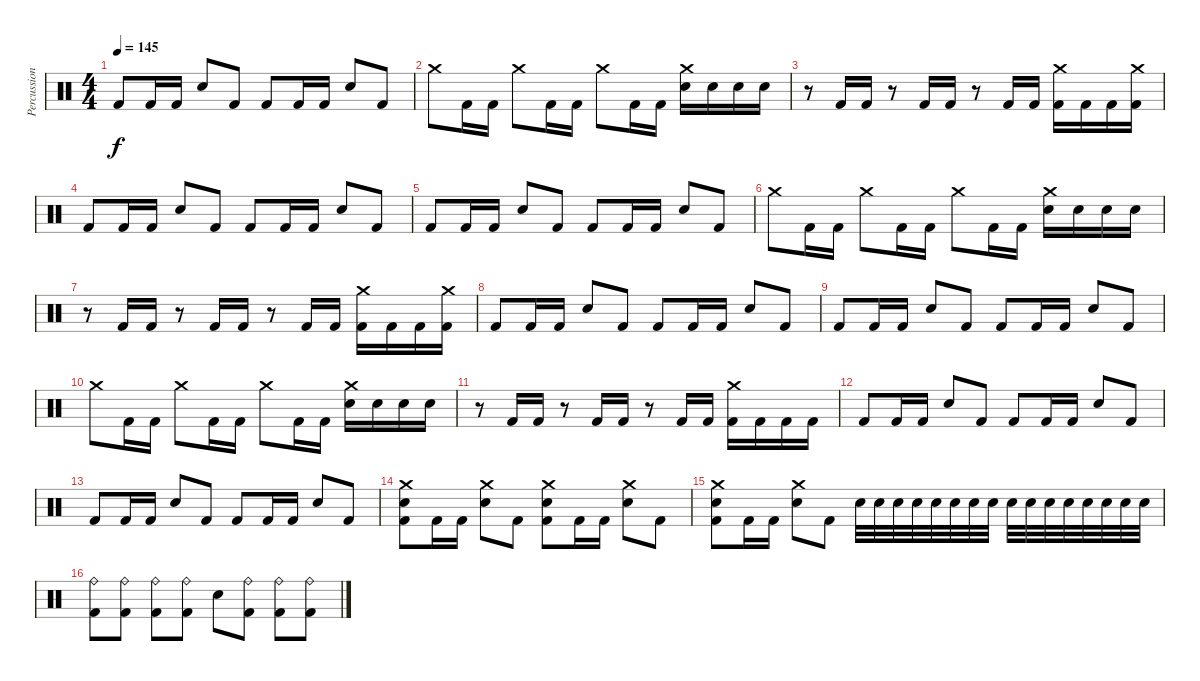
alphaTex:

\track ("Percussion" "Percussion") {instrument percussion}
\staff {score}
\articulation defaults
\ts (4 4)
\tempo 145
\clef neutral
\ks c "Kick (hit) 2".8{dy f} "Kick (hit) 2".16 "Kick (hit) 2".16 "Snare (hit) 2".8 "Kick (hit) 2".8 "Kick (hit) 2".8 "Kick (hit) 2".16 "Kick (hit) 2".16 "Snare (hit) 2".8 "Kick (hit) 2".8
|
"Crash medium (hit)".8 "Kick (hit) 2".16 "Kick (hit) 2".16 "Crash medium (hit)".8 "Kick (hit) 2".16 "Kick (hit) 2".16 "Crash medium (hit)".8 "Kick (hit) 2".16 "Kick (hit) 2".16 ("Crash medium (hit)" "Snare (hit) 2").16 "Snare (hit) 2".16 "Snare (hit) 2".16 "Snare (hit) 2".16 |
r.8 "Kick (hit) 2".16 "Kick (hit) 2".16 r.8 "Kick (hit) 2".16 "Kick (hit) 2".16 r.8 "Kick (hit) 2".16 "Kick (hit) 2".16 ("Crash medium (hit)" "Kick (hit) 2").16 "Kick (hit) 2".16 "Kick (hit) 2".16 ("Crash medium (hit)" "Kick (hit) 2").16 |
"Kick (hit) 2".8 "Kick (hit) 2".16 "Kick (hit) 2".16 "Snare (hit) 2".8 "Kick (hit) 2".8 "Kick (hit) 2".8 "Kick (hit) 2".16 "Kick (hit) 2".16 "Snare (hit) 2".8 "Kick (hit) 2".8 |
"Kick (hit) 2".8 "Kick (hit) 2".16 "Kick (hit) 2".16 "Snare (hit) 2".8 "Kick (hit) 2".8 "Kick (hit) 2".8 "Kick (hit) 2".16 "Kick (hit) 2".16 "Snare (hit) 2".8 "Kick (hit) 2".8 |
"Crash medium (hit)".8 "Kick (hit) 2".16 "Kick (hit) 2".16 "Crash medium (hit)".8 "Kick (hit) 2".16 "Kick (hit) 2".16 "Crash medium (hit)".8 "Kick (hit) 2".16 "Kick (hit) 2".16 ("Crash medium (hit)" "Snare (hit) 2").16 "Snare (hit) 2".16 "Snare (hit) 2".16 "Snare (hit) 2".16 |
r.8 "Kick (hit) 2".16 "Kick (hit) 2".16 r.8 "Kick (hit) 2".16 "Kick (hit) 2".16 r.8 "Kick (hit) 2".16 "Kick (hit) 2".16 ("Crash medium (hit)" "Kick (hit) 2").16 "Kick (hit) 2".16 "Kick (hit) 2".16 ("Crash medium (hit)" "Kick (hit) 2").16 |
"Kick (hit) 2".8 "Kick (hit) 2".16 "Kick (hit) 2".16 "Snare (hit) 2".8 "Kick (hit) 2".8 "Kick (hit) 2".8 "Kick (hit) 2".16 "Kick (hit) 2".16 "Snare (hit) 2".8 "Kick (hit) 2".8 |
"Kick (hit) 2".8 "Kick (hit) 2".16 "Kick (hit) 2".16 "Snare (hit) 2".8 "Kick (hit) 2".8 "Kick (hit) 2".8 "Kick (hit) 2".16 "Kick (hit) 2".16 "Snare (hit) 2".8 "Kick (hit) 2".8 |
"Crash medium (hit)".8 "Kick (hit) 2".16 "Kick (hit) 2".16 "Crash medium (hit)".8 "Kick (hit) 2".16 "Kick (hit) 2".16 "Crash medium (hit)".8 "Kick (hit) 2".16 "Kick (hit) 2".16 ("Crash medium (hit)" "Snare (hit) 2").16 "Snare (hit) 2".16 "Snare (hit) 2".16 "Snare (hit) 2".16 |
r.8 "Kick (hit) 2".16 "Kick (hit) 2".16 r.8 "Kick (hit) 2".16 "Kick (hit) 2".16 r.8 "Kick (hit) 2".16 "Kick (hit) 2".16 ("Crash medium (hit)" "Kick (hit) 2").16 "Kick (hit) 2".16 "Kick (hit) 2".16 "Kick (hit) 2".16 |
"Kick (hit) 2".8 "Kick (hit) 2".16 "Kick (hit) 2".16 "Snare (hit) 2".8 "Kick (hit) 2".8 "Kick (hit) 2".8 "Kick (hit) 2".16 "Kick (hit) 2".16 "Snare (hit) 2".8 "Kick (hit) 2".8 |
"Kick (hit) 2".8 "Kick (hit) 2".16 "Kick (hit) 2".16 "Snare (hit) 2".8 "Kick (hit) 2".8 "Kick (hit) 2".8 "Kick (hit) 2".16 "Kick (hit) 2".16 "Snare (hit) 2".8 "Kick (hit) 2".8 |
("Crash medium (hit)" "Snare (hit) 2" "Kick (hit) 2").8 "Kick (hit) 2".16 "Kick (hit) 2".16 ("Crash medium (hit)" "Snare (hit) 2").8 "Kick (hit) 2".8 ("Crash medium (hit)" "Snare (hit) 2" "Kick (hit) 2").8 "Kick (hit) 2".16 "Kick (hit) 2".16 ("Crash medium (hit)" "Snare (hit) 2").8 "Kick (hit) 2".8 |
("Crash medium (hit)" "Snare (hit) 2" "Kick (hit) 2").8 "Kick (hit) 2".16 "Kick (hit) 2".16 ("Crash medium (hit)" "Snare (hit) 2").8 "Kick (hit) 2".8 "Snare (hit) 2".32 "Snare (hit) 2".32 "Snare (hit) 2".32 "Snare (hit) 2".32 "Snare (hit) 2".32 "Snare (hit) 2".32 "Snare (hit) 2".32 "Snare (hit) 2".32 "Snare (hit) 2".32 "Snare (hit) 2".32 "Snare (hit) 2".32 "Snare (hit) 2".32 "Snare (hit) 2".32 "Snare (hit) 2".32 "Snare (hit) 2".32 "Snare (hit) 2".32 |
("Ride (bell)" "Kick (hit) 2").8 ("Ride (bell)" "Kick (hit) 2").8 ("Ride (bell)" "Kick (hit) 2").8 ("Ride (bell)" "Kick (hit) 2").8 "Snare (hit) 2".8 ("Ride (bell)" "Kick (hit) 2").8 ("Ride (bell)" "Kick (hit) 2").8 ("Ride (bell)" "Kick (hit) 2").8
